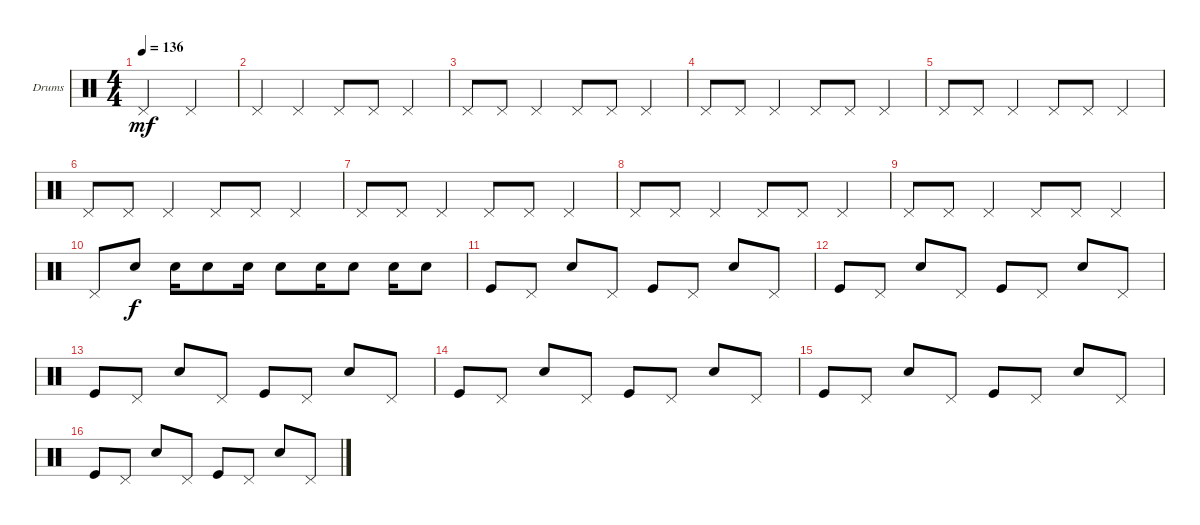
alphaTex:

\defaultSystemsLayout 4
\bracketExtendMode groupsimilarinstruments
\firstSystemTrackNameOrientation horizontal
\otherSystemsTrackNameOrientation horizontal
\track ("Е. Кулаков" "Drums") {instrument percussion}
\staff {score}
\articulation defaults
\ts (4 4)
\tempo 136
\clef neutral
\ks c "Pedal Hi-Hat (hit)".2{dy mf} "Pedal Hi-Hat (hit)".2
|
"Pedal Hi-Hat (hit)".4 "Pedal Hi-Hat (hit)".4 "Pedal Hi-Hat (hit)".8 "Pedal Hi-Hat (hit)".8 "Pedal Hi-Hat (hit)".4 |
"Pedal Hi-Hat (hit)".8 "Pedal Hi-Hat (hit)".8 "Pedal Hi-Hat (hit)".4 "Pedal Hi-Hat (hit)".8 "Pedal Hi-Hat (hit)".8 "Pedal Hi-Hat (hit)".4 |
"Pedal Hi-Hat (hit)".8 "Pedal Hi-Hat (hit)".8 "Pedal Hi-Hat (hit)".4 "Pedal Hi-Hat (hit)".8 "Pedal Hi-Hat (hit)".8 "Pedal Hi-Hat (hit)".4 |
"Pedal Hi-Hat (hit)".8 "Pedal Hi-Hat (hit)".8 "Pedal Hi-Hat (hit)".4 "Pedal Hi-Hat (hit)".8 "Pedal Hi-Hat (hit)".8 "Pedal Hi-Hat (hit)".4 |
"Pedal Hi-Hat (hit)".8 "Pedal Hi-Hat (hit)".8 "Pedal Hi-Hat (hit)".4 "Pedal Hi-Hat (hit)".8 "Pedal Hi-Hat (hit)".8 "Pedal Hi-Hat (hit)".4 |
"Pedal Hi-Hat (hit)".8 "Pedal Hi-Hat (hit)".8 "Pedal Hi-Hat (hit)".4 "Pedal Hi-Hat (hit)".8 "Pedal Hi-Hat (hit)".8 "Pedal Hi-Hat (hit)".4 |
"Pedal Hi-Hat (hit)".8 "Pedal Hi-Hat (hit)".8 "Pedal Hi-Hat (hit)".4 "Pedal Hi-Hat (hit)".8 "Pedal Hi-Hat (hit)".8 "Pedal Hi-Hat (hit)".4 |
"Pedal Hi-Hat (hit)".8 "Pedal Hi-Hat (hit)".8 "Pedal Hi-Hat (hit)".4 "Pedal Hi-Hat (hit)".8 "Pedal Hi-Hat (hit)".8 "Pedal Hi-Hat (hit)".4 |
"Pedal Hi-Hat (hit)".8 "Snare (hit) 2".8{dy f} "Snare (hit) 2".16 "Snare (hit) 2".8 "Snare (hit) 2".16 "Snare (hit) 2".8 "Snare (hit) 2".16 "Snare (hit) 2".8 "Snare (hit) 2".16 "Snare (hit) 2".8 |
"Kick (hit)".8 "Pedal Hi-Hat (hit)".8 "Snare (hit) 2".8 "Pedal Hi-Hat (hit)".8 "Kick (hit)".8 "Pedal Hi-Hat (hit)".8 "Snare (hit) 2".8 "Pedal Hi-Hat (hit)".8 |
"Kick (hit)".8 "Pedal Hi-Hat (hit)".8 "Snare (hit) 2".8 "Pedal Hi-Hat (hit)".8 "Kick (hit)".8 "Pedal Hi-Hat (hit)".8 "Snare (hit) 2".8 "Pedal Hi-Hat (hit)".8 |
"Kick (hit)".8 "Pedal Hi-Hat (hit)".8 "Snare (hit) 2".8 "Pedal Hi-Hat (hit)".8 "Kick (hit)".8 "Pedal Hi-Hat (hit)".8 "Snare (hit) 2".8 "Pedal Hi-Hat (hit)".8 |
"Kick (hit)".8 "Pedal Hi-Hat (hit)".8 "Snare (hit) 2".8 "Pedal Hi-Hat (hit)".8 "Kick (hit)".8 "Pedal Hi-Hat (hit)".8 "Snare (hit) 2".8 "Pedal Hi-Hat (hit)".8 |
"Kick (hit)".8 "Pedal Hi-Hat (hit)".8 "Snare (hit) 2".8 "Pedal Hi-Hat (hit)".8 "Kick (hit)".8 "Pedal Hi-Hat (hit)".8 "Snare (hit) 2".8 "Pedal Hi-Hat (hit)".8 |
"Kick (hit)".8 "Pedal Hi-Hat (hit)".8 "Snare (hit) 2".8 "Pedal Hi-Hat (hit)".8 "Kick (hit)".8 "Pedal Hi-Hat (hit)".8 "Snare (hit) 2".8 "Pedal Hi-Hat (hit)".8
